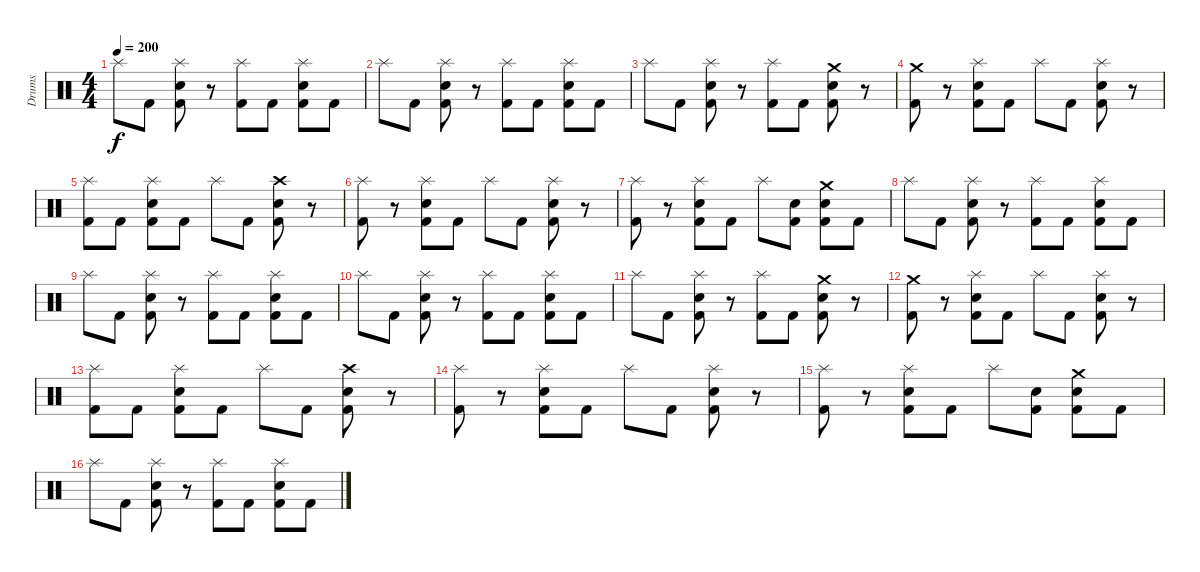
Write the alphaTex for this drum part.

\track ("Drums" "Drums") {instrument percussion}
\staff {score}
\articulation defaults
\ts (4 4)
\tempo 200
\clef neutral
\ks c "Splash (hit)".8{dy f} "Kick (hit) 2".8
("Splash (hit)" "Snare (hit) 2" "Kick (hit) 2").8 r.8 ("Splash (hit)" "Kick (hit) 2").8 "Kick (hit) 2".8 ("Splash (hit)" "Snare (hit) 2" "Kick (hit) 2").8 "Kick (hit) 2".8 |
"Splash (hit)".8 "Kick (hit) 2".8 ("Splash (hit)" "Snare (hit) 2" "Kick (hit) 2").8 r.8 ("Splash (hit)" "Kick (hit) 2").8 "Kick (hit) 2".8 ("Splash (hit)" "Snare (hit) 2" "Kick (hit) 2").8 "Kick (hit) 2".8 |
"Splash (hit)".8 "Kick (hit) 2".8 ("Splash (hit)" "Snare (hit) 2" "Kick (hit) 2").8 r.8 ("Splash (hit)" "Kick (hit) 2").8 "Kick (hit) 2".8 ("Crash medium (hit)" "Snare (hit) 2" "Kick (hit) 2").8 r.8 |
("Crash medium (hit)" "Kick (hit) 2").8 r.8 ("Splash (hit)" "Snare (hit) 2" "Kick (hit) 2").8 "Kick (hit) 2".8 "Splash (hit)".8 "Kick (hit) 2".8 ("Splash (hit)" "Snare (hit) 2" "Kick (hit) 2").8 r.8 |
("Splash (hit)" "Kick (hit) 2").8 "Kick (hit) 2".8 ("Splash (hit)" "Snare (hit) 2" "Kick (hit) 2").8 "Kick (hit) 2".8 "Splash (hit)".8 "Kick (hit) 2".8 ("Crash high (hit)" "Snare (hit) 2" "Kick (hit) 2").8 r.8 |
("Splash (hit)" "Kick (hit) 2").8 r.8 ("Splash (hit)" "Snare (hit) 2" "Kick (hit) 2").8 "Kick (hit) 2".8 "Splash (hit)".8 "Kick (hit) 2".8 ("Splash (hit)" "Snare (hit) 2" "Kick (hit) 2").8 r.8 |
("Splash (hit)" "Kick (hit) 2").8 r.8 ("Splash (hit)" "Snare (hit) 2" "Kick (hit) 2").8 "Kick (hit) 2".8 "Splash (hit)".8 ("Snare (hit) 2" "Kick (hit) 2").8 ("Crash medium (hit)" "Snare (hit) 2" "Kick (hit) 2").8 "Kick (hit) 2".8 |
"Splash (hit)".8 "Kick (hit) 2".8 ("Splash (hit)" "Snare (hit) 2" "Kick (hit) 2").8 r.8 ("Splash (hit)" "Kick (hit) 2").8 "Kick (hit) 2".8 ("Splash (hit)" "Snare (hit) 2" "Kick (hit) 2").8 "Kick (hit) 2".8 |
"Splash (hit)".8 "Kick (hit) 2".8 ("Splash (hit)" "Snare (hit) 2" "Kick (hit) 2").8 r.8 ("Splash (hit)" "Kick (hit) 2").8 "Kick (hit) 2".8 ("Splash (hit)" "Snare (hit) 2" "Kick (hit) 2").8 "Kick (hit) 2".8 |
"Splash (hit)".8 "Kick (hit) 2".8 ("Splash (hit)" "Snare (hit) 2" "Kick (hit) 2").8 r.8 ("Splash (hit)" "Kick (hit) 2").8 "Kick (hit) 2".8 ("Splash (hit)" "Snare (hit) 2" "Kick (hit) 2").8 "Kick (hit) 2".8 |
"Splash (hit)".8 "Kick (hit) 2".8 ("Splash (hit)" "Snare (hit) 2" "Kick (hit) 2").8 r.8 ("Splash (hit)" "Kick (hit) 2").8 "Kick (hit) 2".8 ("Crash medium (hit)" "Snare (hit) 2" "Kick (hit) 2").8 r.8 |
("Crash medium (hit)" "Kick (hit) 2").8 r.8 ("Splash (hit)" "Snare (hit) 2" "Kick (hit) 2").8 "Kick (hit) 2".8 "Splash (hit)".8 "Kick (hit) 2".8 ("Splash (hit)" "Snare (hit) 2" "Kick (hit) 2").8 r.8 |
("Splash (hit)" "Kick (hit) 2").8 "Kick (hit) 2".8 ("Splash (hit)" "Snare (hit) 2" "Kick (hit) 2").8 "Kick (hit) 2".8 "Splash (hit)".8 "Kick (hit) 2".8 ("Crash high (hit)" "Snare (hit) 2" "Kick (hit) 2").8 r.8 |
("Splash (hit)" "Kick (hit) 2").8 r.8 ("Splash (hit)" "Snare (hit) 2" "Kick (hit) 2").8 "Kick (hit) 2".8 "Splash (hit)".8 "Kick (hit) 2".8 ("Splash (hit)" "Snare (hit) 2" "Kick (hit) 2").8 r.8 |
("Splash (hit)" "Kick (hit) 2").8 r.8 ("Splash (hit)" "Snare (hit) 2" "Kick (hit) 2").8 "Kick (hit) 2".8 "Splash (hit)".8 ("Snare (hit) 2" "Kick (hit) 2").8 ("Crash medium (hit)" "Snare (hit) 2" "Kick (hit) 2").8 "Kick (hit) 2".8 |
"Splash (hit)".8 "Kick (hit) 2".8 ("Splash (hit)" "Snare (hit) 2" "Kick (hit) 2").8 r.8 ("Splash (hit)" "Kick (hit) 2").8 "Kick (hit) 2".8 ("Splash (hit)" "Snare (hit) 2" "Kick (hit) 2").8 "Kick (hit) 2".8
